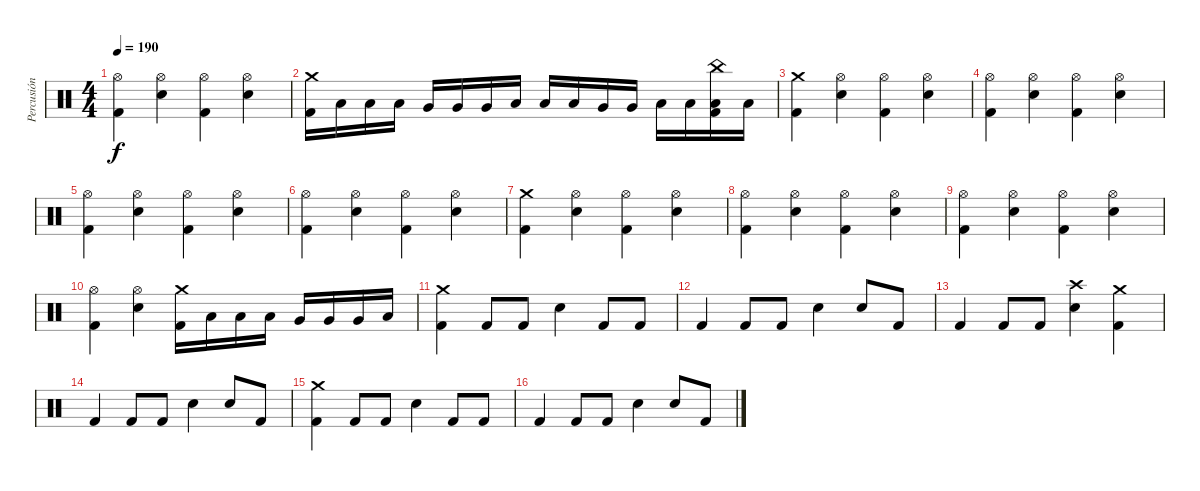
\track ("Percusión" "Percusión") {instrument percussion}
\staff {score}
\articulation defaults
\ts (4 4)
\tempo 190
\clef neutral
\ks c
("Hi-Hat (open)" "Kick (hit) 2").4{dy f} ("Hi-Hat (open)" "Electric Snare (hit)").4 ("Hi-Hat (open)" "Kick (hit) 2").4 ("Hi-Hat (open)" "Electric Snare (hit)").4 |
("Crash medium (hit)" "Kick (hit) 2").16 "Low Tom (hit)".16 "Low Tom (hit)".16 "Low Tom (hit)".16 "Very Low Tom (hit)".16 "Very Low Tom (hit)".16 "Very Low Tom (hit)".16 "Low Floor Tom (hit)".16 "Low Floor Tom (hit)".16 "Low Floor Tom (hit)".16 "Very Low Tom (hit)".16 "Very Low Tom (hit)".16 "Low Floor Tom (hit)".16 "Low Floor Tom (hit)".16 ("China (hit)" "Low Floor Tom (hit)" "Kick (hit) 2").16 "Low Floor Tom (hit)".16 |
("Crash medium (hit)" "Kick (hit) 2").4 ("Hi-Hat (open)" "Electric Snare (hit)").4 ("Hi-Hat (open)" "Kick (hit) 2").4 ("Hi-Hat (open)" "Electric Snare (hit)").4 |
("Hi-Hat (open)" "Kick (hit) 2").4 ("Hi-Hat (open)" "Electric Snare (hit)").4 ("Hi-Hat (open)" "Kick (hit) 2").4 ("Hi-Hat (open)" "Electric Snare (hit)").4 |
("Hi-Hat (open)" "Kick (hit) 2").4 ("Hi-Hat (open)" "Electric Snare (hit)").4 ("Hi-Hat (open)" "Kick (hit) 2").4 ("Hi-Hat (open)" "Electric Snare (hit)").4 |
("Hi-Hat (open)" "Kick (hit) 2").4 ("Hi-Hat (open)" "Electric Snare (hit)").4 ("Hi-Hat (open)" "Kick (hit) 2").4 ("Hi-Hat (open)" "Electric Snare (hit)").4 |
("Crash medium (hit)" "Kick (hit) 2").4 ("Hi-Hat (open)" "Electric Snare (hit)").4 ("Hi-Hat (open)" "Kick (hit) 2").4 ("Hi-Hat (open)" "Electric Snare (hit)").4 |
("Hi-Hat (open)" "Kick (hit) 2").4 ("Hi-Hat (open)" "Electric Snare (hit)").4 ("Hi-Hat (open)" "Kick (hit) 2").4 ("Hi-Hat (open)" "Electric Snare (hit)").4 |
("Hi-Hat (open)" "Kick (hit) 2").4 ("Hi-Hat (open)" "Electric Snare (hit)").4 ("Hi-Hat (open)" "Kick (hit) 2").4 ("Hi-Hat (open)" "Electric Snare (hit)").4 |
("Hi-Hat (open)" "Kick (hit) 2").4 ("Hi-Hat (open)" "Electric Snare (hit)").4 ("Crash medium (hit)" "Kick (hit) 2").16 "Low Tom (hit)".16 "Low Tom (hit)".16 "Low Tom (hit)".16 "Very Low Tom (hit)".16 "Very Low Tom (hit)".16 "Very Low Tom (hit)".16 "Low Floor Tom (hit)".16 |
("Crash medium (hit)" "Kick (hit) 2").4 "Kick (hit) 2".8 "Kick (hit) 2".8 "Electric Snare (hit)".4 "Kick (hit) 2".8 "Kick (hit) 2".8 |
"Kick (hit) 2".4 "Kick (hit) 2".8 "Kick (hit) 2".8 "Electric Snare (hit)".4 "Electric Snare (hit)".8 "Kick (hit) 2".8 |
"Kick (hit) 2".4 "Kick (hit) 2".8 "Kick (hit) 2".8 ("Crash high (hit)" "Electric Snare (hit)").4 ("Crash medium (hit)" "Kick (hit) 2").4 |
"Kick (hit) 2".4 "Kick (hit) 2".8 "Kick (hit) 2".8 "Electric Snare (hit)".4 "Electric Snare (hit)".8 "Kick (hit) 2".8 |
("Crash medium (hit)" "Kick (hit) 2").4 "Kick (hit) 2".8 "Kick (hit) 2".8 "Electric Snare (hit)".4 "Kick (hit) 2".8 "Kick (hit) 2".8 |
"Kick (hit) 2".4 "Kick (hit) 2".8 "Kick (hit) 2".8 "Electric Snare (hit)".4 "Electric Snare (hit)".8 "Kick (hit) 2".8
